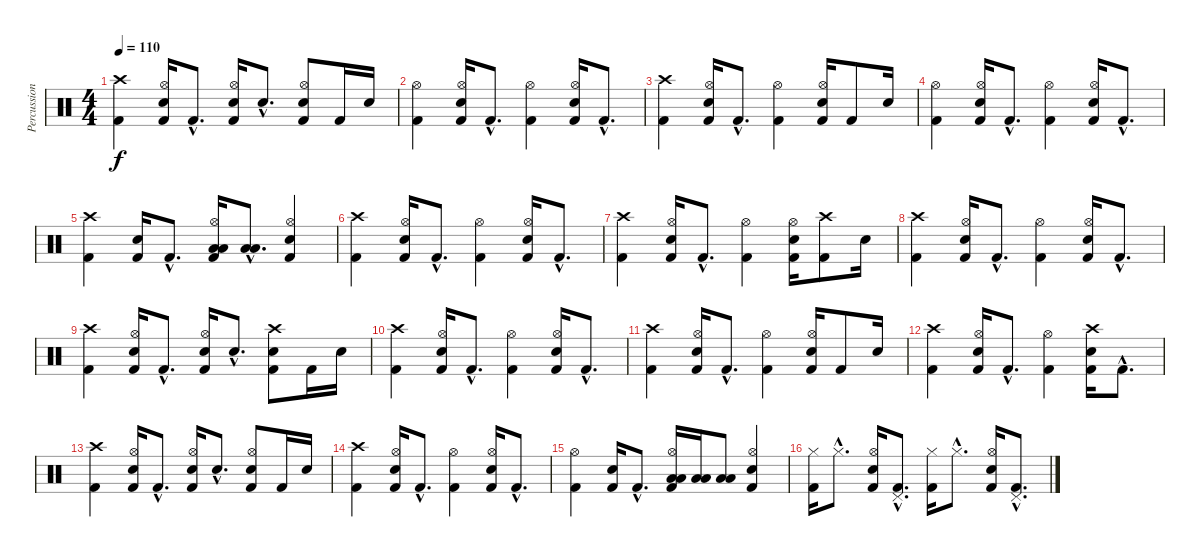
\track ("Percussions" "Percussion") {instrument percussion}
\staff {score}
\articulation defaults
\ts (4 4)
\tempo 110
\clef neutral
\ks c
("Crash high (hit)" "Kick (hit) 2").4{dy f} ("Hi-Hat (open)" "Electric Snare (hit)" "Kick (hit) 2").16 "Kick (hit) 2"{hac}.8{d} ("Hi-Hat (open)" "Electric Snare (hit)" "Kick (hit) 2").16 "Electric Snare (hit)"{hac}.8{d} ("Hi-Hat (open)" "Electric Snare (hit)" "Kick (hit) 2").8 "Kick (hit) 2".16 "Electric Snare (hit)".16 |
("Hi-Hat (open)" "Kick (hit) 2").4 ("Hi-Hat (open)" "Electric Snare (hit)" "Kick (hit) 2").16 "Kick (hit) 2"{hac}.8{d} ("Hi-Hat (open)" "Kick (hit) 2").4 ("Hi-Hat (open)" "Electric Snare (hit)" "Kick (hit) 2").16 "Kick (hit) 2"{hac}.8{d} |
("Crash high (hit)" "Kick (hit) 2").4 ("Hi-Hat (open)" "Electric Snare (hit)" "Kick (hit) 2").16 "Kick (hit) 2"{hac}.8{d} ("Hi-Hat (open)" "Kick (hit) 2").4 ("Hi-Hat (open)" "Electric Snare (hit)" "Kick (hit) 2").16 "Kick (hit) 2".8 "Electric Snare (hit)".16 |
("Hi-Hat (open)" "Kick (hit) 2").4 ("Hi-Hat (open)" "Electric Snare (hit)" "Kick (hit) 2").16 "Kick (hit) 2"{hac}.8{d} ("Hi-Hat (open)" "Kick (hit) 2").4 ("Hi-Hat (open)" "Electric Snare (hit)" "Kick (hit) 2").16 "Kick (hit) 2"{hac}.8{d} |
("Crash high (hit)" "Kick (hit) 2").4 ("Electric Snare (hit)" "Kick (hit) 2").16 "Kick (hit) 2"{hac}.8{d} ("Hi-Hat (open)" "Low Tom (hit)" "Low Tom (hit)" "Kick (hit) 2").16 ("Low Tom (hit)"{hac} "Low Tom (hit)"{hac}).8{d} ("Hi-Hat (open)" "Electric Snare (hit)" "Kick (hit) 2").4 |
("Crash high (hit)" "Kick (hit) 2").4 ("Hi-Hat (open)" "Electric Snare (hit)" "Kick (hit) 2").16 "Kick (hit) 2"{hac}.8{d} ("Hi-Hat (open)" "Kick (hit) 2").4 ("Hi-Hat (open)" "Electric Snare (hit)" "Kick (hit) 2").16 "Kick (hit) 2"{hac}.8{d} |
("Crash high (hit)" "Kick (hit) 2").4 ("Hi-Hat (open)" "Electric Snare (hit)" "Kick (hit) 2").16 "Kick (hit) 2"{hac}.8{d} ("Hi-Hat (open)" "Kick (hit) 2").4 ("Hi-Hat (open)" "Electric Snare (hit)" "Kick (hit) 2").16 ("Crash high (hit)" "Kick (hit) 2").8 "Electric Snare (hit)".16 |
("Crash high (hit)" "Kick (hit) 2").4 ("Hi-Hat (open)" "Electric Snare (hit)" "Kick (hit) 2").16 "Kick (hit) 2"{hac}.8{d} ("Hi-Hat (open)" "Kick (hit) 2").4 ("Hi-Hat (open)" "Electric Snare (hit)" "Kick (hit) 2").16 "Kick (hit) 2"{hac}.8{d} |
("Crash high (hit)" "Kick (hit) 2").4 ("Hi-Hat (open)" "Electric Snare (hit)" "Kick (hit) 2").16 "Kick (hit) 2"{hac}.8{d} ("Hi-Hat (open)" "Electric Snare (hit)" "Kick (hit) 2").16 "Electric Snare (hit)"{hac}.8{d} ("Crash high (hit)" "Electric Snare (hit)" "Kick (hit) 2").8 "Kick (hit) 2".16 "Electric Snare (hit)".16 |
("Crash high (hit)" "Kick (hit) 2").4 ("Hi-Hat (open)" "Electric Snare (hit)" "Kick (hit) 2").16 "Kick (hit) 2"{hac}.8{d} ("Hi-Hat (open)" "Kick (hit) 2").4 ("Hi-Hat (open)" "Electric Snare (hit)" "Kick (hit) 2").16 "Kick (hit) 2"{hac}.8{d} |
("Crash high (hit)" "Kick (hit) 2").4 ("Hi-Hat (open)" "Electric Snare (hit)" "Kick (hit) 2").16 "Kick (hit) 2"{hac}.8{d} ("Hi-Hat (open)" "Kick (hit) 2").4 ("Hi-Hat (open)" "Electric Snare (hit)" "Kick (hit) 2").16 "Kick (hit) 2".8 "Electric Snare (hit)".16 |
("Crash high (hit)" "Kick (hit) 2").4 ("Hi-Hat (open)" "Electric Snare (hit)" "Kick (hit) 2").16 "Kick (hit) 2"{hac}.8{d} ("Hi-Hat (open)" "Kick (hit) 2").4 ("Crash high (hit)" "Electric Snare (hit)" "Kick (hit) 2").16 "Kick (hit) 2"{hac}.8{d} |
("Crash high (hit)" "Kick (hit) 2").4 ("Hi-Hat (open)" "Electric Snare (hit)" "Kick (hit) 2").16 "Kick (hit) 2"{hac}.8{d} ("Hi-Hat (open)" "Electric Snare (hit)" "Kick (hit) 2").16 "Electric Snare (hit)"{hac}.8{d} ("Hi-Hat (open)" "Electric Snare (hit)" "Kick (hit) 2").8 "Kick (hit) 2".16 "Electric Snare (hit)".16 |
("Crash high (hit)" "Kick (hit) 2").4 ("Hi-Hat (open)" "Electric Snare (hit)" "Kick (hit) 2").16 "Kick (hit) 2"{hac}.8{d} ("Hi-Hat (open)" "Kick (hit) 2").4 ("Hi-Hat (open)" "Electric Snare (hit)" "Kick (hit) 2").16 "Kick (hit) 2"{hac}.8{d} |
("Hi-Hat (open)" "Kick (hit) 2").4 ("Electric Snare (hit)" "Kick (hit) 2").16 "Kick (hit) 2"{hac}.8{d} ("Hi-Hat (open)" "Low Tom (hit)" "Low Tom (hit)" "Kick (hit) 2").16 ("Low Tom (hit)" "Low Tom (hit)").16 ("Low Tom (hit)" "Low Tom (hit)").8 ("Hi-Hat (open)" "Electric Snare (hit)" "Kick (hit) 2").4 |
("Hi-Hat (closed)" "Kick (hit) 2").16 "Hi-Hat (closed)"{hac}.8{d} ("Hi-Hat (open)" "Electric Snare (hit)" "Kick (hit) 2").16 ("Pedal Hi-Hat (hit)"{hac} "Kick (hit) 2"{hac}).8{d} ("Hi-Hat (closed)" "Kick (hit) 2").16 "Hi-Hat (closed)"{hac}.8{d} ("Hi-Hat (open)" "Electric Snare (hit)" "Kick (hit) 2").16 ("Pedal Hi-Hat (hit)"{hac} "Kick (hit) 2"{hac}).8{d}
